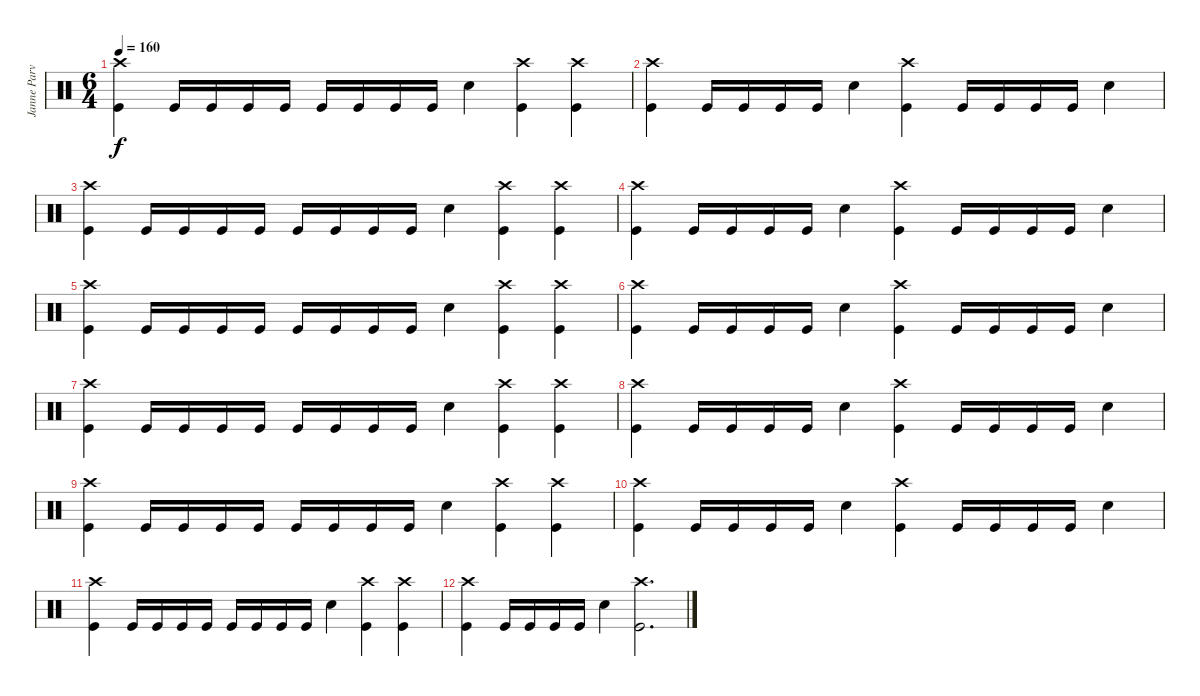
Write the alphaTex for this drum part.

\track ("Janne Parviainen" "Janne Parv") {instrument percussion}
\staff {score}
\articulation defaults
\ts (6 4)
\tempo 160
\clef neutral
\ks c
("Crash high (hit)" "Kick (hit)").4{dy f} "Kick (hit)".16 "Kick (hit)".16 "Kick (hit)".16 "Kick (hit)".16 "Kick (hit)".16 "Kick (hit)".16 "Kick (hit)".16 "Kick (hit)".16 "Electric Snare (hit)".4 ("Crash high (hit)" "Kick (hit)").4 ("Crash high (hit)" "Kick (hit)").4 |
("Crash high (hit)" "Kick (hit)").4 "Kick (hit)".16 "Kick (hit)".16 "Kick (hit)".16 "Kick (hit)".16 "Electric Snare (hit)".4 ("Crash high (hit)" "Kick (hit)").4 "Kick (hit)".16 "Kick (hit)".16 "Kick (hit)".16 "Kick (hit)".16 "Electric Snare (hit)".4 |
("Crash high (hit)" "Kick (hit)").4 "Kick (hit)".16 "Kick (hit)".16 "Kick (hit)".16 "Kick (hit)".16 "Kick (hit)".16 "Kick (hit)".16 "Kick (hit)".16 "Kick (hit)".16 "Electric Snare (hit)".4 ("Crash high (hit)" "Kick (hit)").4 ("Crash high (hit)" "Kick (hit)").4 |
("Crash high (hit)" "Kick (hit)").4 "Kick (hit)".16 "Kick (hit)".16 "Kick (hit)".16 "Kick (hit)".16 "Electric Snare (hit)".4 ("Crash high (hit)" "Kick (hit)").4 "Kick (hit)".16 "Kick (hit)".16 "Kick (hit)".16 "Kick (hit)".16 "Electric Snare (hit)".4 |
("Crash high (hit)" "Kick (hit)").4 "Kick (hit)".16 "Kick (hit)".16 "Kick (hit)".16 "Kick (hit)".16 "Kick (hit)".16 "Kick (hit)".16 "Kick (hit)".16 "Kick (hit)".16 "Electric Snare (hit)".4 ("Crash high (hit)" "Kick (hit)").4 ("Crash high (hit)" "Kick (hit)").4 |
("Crash high (hit)" "Kick (hit)").4 "Kick (hit)".16 "Kick (hit)".16 "Kick (hit)".16 "Kick (hit)".16 "Electric Snare (hit)".4 ("Crash high (hit)" "Kick (hit)").4 "Kick (hit)".16 "Kick (hit)".16 "Kick (hit)".16 "Kick (hit)".16 "Electric Snare (hit)".4 |
("Crash high (hit)" "Kick (hit)").4 "Kick (hit)".16 "Kick (hit)".16 "Kick (hit)".16 "Kick (hit)".16 "Kick (hit)".16 "Kick (hit)".16 "Kick (hit)".16 "Kick (hit)".16 "Electric Snare (hit)".4 ("Crash high (hit)" "Kick (hit)").4 ("Crash high (hit)" "Kick (hit)").4 |
("Crash high (hit)" "Kick (hit)").4 "Kick (hit)".16 "Kick (hit)".16 "Kick (hit)".16 "Kick (hit)".16 "Electric Snare (hit)".4 ("Crash high (hit)" "Kick (hit)").4 "Kick (hit)".16 "Kick (hit)".16 "Kick (hit)".16 "Kick (hit)".16 "Electric Snare (hit)".4 |
("Crash high (hit)" "Kick (hit)").4 "Kick (hit)".16 "Kick (hit)".16 "Kick (hit)".16 "Kick (hit)".16 "Kick (hit)".16 "Kick (hit)".16 "Kick (hit)".16 "Kick (hit)".16 "Electric Snare (hit)".4 ("Crash high (hit)" "Kick (hit)").4 ("Crash high (hit)" "Kick (hit)").4 |
("Crash high (hit)" "Kick (hit)").4 "Kick (hit)".16 "Kick (hit)".16 "Kick (hit)".16 "Kick (hit)".16 "Electric Snare (hit)".4 ("Crash high (hit)" "Kick (hit)").4 "Kick (hit)".16 "Kick (hit)".16 "Kick (hit)".16 "Kick (hit)".16 "Electric Snare (hit)".4 |
("Crash high (hit)" "Kick (hit)").4 "Kick (hit)".16 "Kick (hit)".16 "Kick (hit)".16 "Kick (hit)".16 "Kick (hit)".16 "Kick (hit)".16 "Kick (hit)".16 "Kick (hit)".16 "Electric Snare (hit)".4 ("Crash high (hit)" "Kick (hit)").4 ("Crash high (hit)" "Kick (hit)").4 |
("Crash high (hit)" "Kick (hit)").4 "Kick (hit)".16 "Kick (hit)".16 "Kick (hit)".16 "Kick (hit)".16 "Electric Snare (hit)".4 ("Crash high (hit)" "Kick (hit)").2{d}
